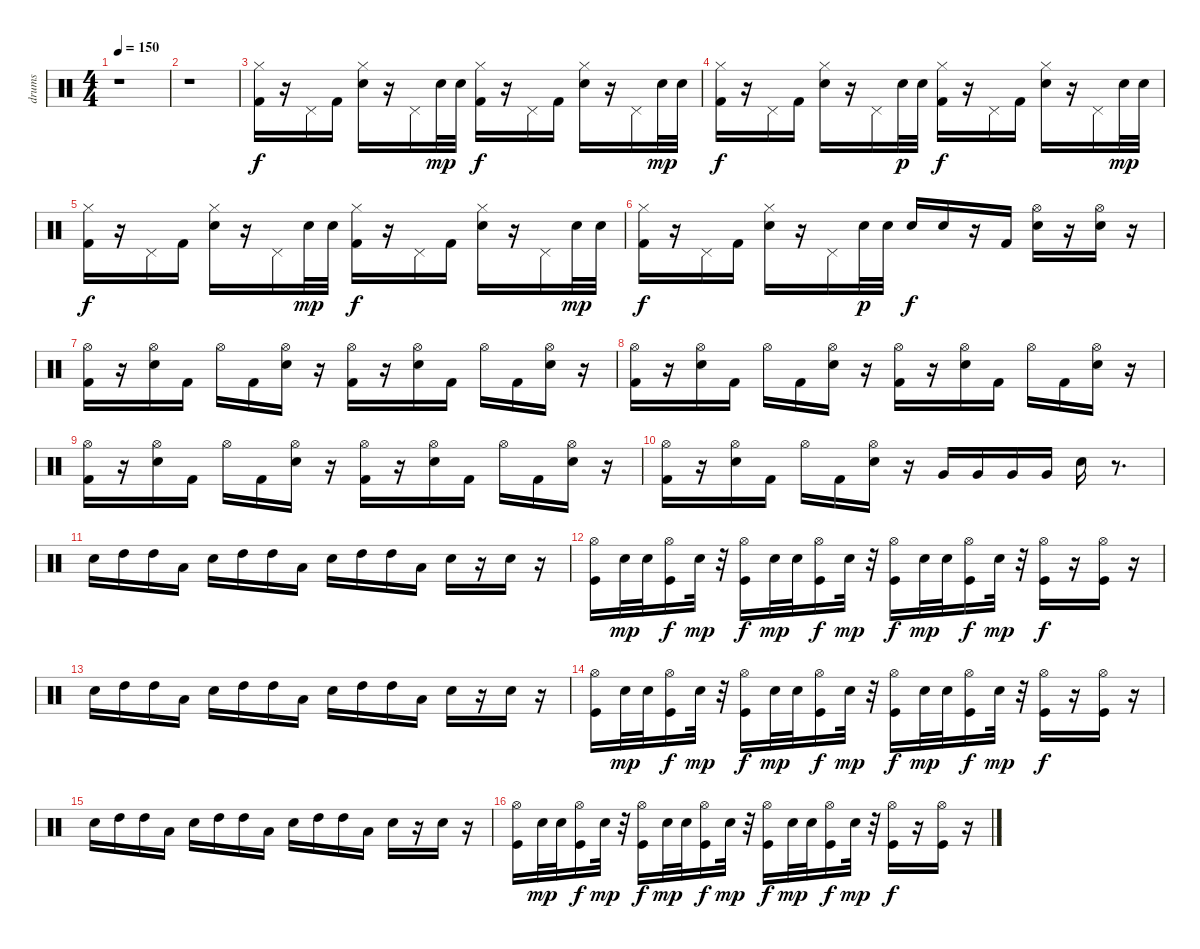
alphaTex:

\track ("drums" "drums") {instrument percussion}
\staff {score}
\articulation defaults
\ts (4 4)
\tempo 150
\clef neutral
\ks c
r.1{dy f} |
r.1 |
("Kick (hit) 2" "Hi-Hat (closed)").16 r.16 "Pedal Hi-Hat (hit)".16 "Kick (hit) 2".16 ("Electric Snare (hit)" "Hi-Hat (closed)").16 r.16 "Pedal Hi-Hat (hit)".16 "Electric Snare (hit)".32{dy mp} "Electric Snare (hit)".32 ("Kick (hit) 2" "Hi-Hat (closed)").16{dy f} r.16 "Pedal Hi-Hat (hit)".16 "Kick (hit) 2".16 ("Electric Snare (hit)" "Hi-Hat (closed)").16 r.16 "Pedal Hi-Hat (hit)".16 "Electric Snare (hit)".32{dy mp} "Electric Snare (hit)".32 |
("Kick (hit) 2" "Hi-Hat (closed)").16{dy f} r.16 "Pedal Hi-Hat (hit)".16 "Kick (hit) 2".16 ("Electric Snare (hit)" "Hi-Hat (closed)").16 r.16 "Pedal Hi-Hat (hit)".16 "Electric Snare (hit)".32{dy p} "Electric Snare (hit)".32 ("Kick (hit) 2" "Hi-Hat (closed)").16{dy f} r.16 "Pedal Hi-Hat (hit)".16 "Kick (hit) 2".16 ("Electric Snare (hit)" "Hi-Hat (closed)").16 r.16 "Pedal Hi-Hat (hit)".16 "Electric Snare (hit)".32{dy mp} "Electric Snare (hit)".32 |
("Kick (hit) 2" "Hi-Hat (closed)").16{dy f} r.16 "Pedal Hi-Hat (hit)".16 "Kick (hit) 2".16 ("Electric Snare (hit)" "Hi-Hat (closed)").16 r.16 "Pedal Hi-Hat (hit)".16 "Electric Snare (hit)".32{dy mp} "Electric Snare (hit)".32 ("Kick (hit) 2" "Hi-Hat (closed)").16{dy f} r.16 "Pedal Hi-Hat (hit)".16 "Kick (hit) 2".16 ("Electric Snare (hit)" "Hi-Hat (closed)").16 r.16 "Pedal Hi-Hat (hit)".16 "Electric Snare (hit)".32{dy mp} "Electric Snare (hit)".32 |
("Kick (hit) 2" "Hi-Hat (closed)").16{dy f} r.16 "Pedal Hi-Hat (hit)".16 "Kick (hit) 2".16 ("Electric Snare (hit)" "Hi-Hat (closed)").16 r.16 "Pedal Hi-Hat (hit)".16 "Electric Snare (hit)".32{dy p} "Electric Snare (hit)".32 "Electric Snare (hit)".16{dy f} "Electric Snare (hit)".16 r.16 "Kick (hit) 2".16 ("Electric Snare (hit)" "Hi-Hat (open)").16 r.16 ("Electric Snare (hit)" "Hi-Hat (open)").16 r.16 |
("Kick (hit) 2" "Hi-Hat (open)").16 r.16 ("Electric Snare (hit)" "Hi-Hat (open)").16 "Kick (hit) 2".16 "Hi-Hat (open)".16 "Kick (hit) 2".16 ("Electric Snare (hit)" "Hi-Hat (open)").16 r.16 ("Kick (hit) 2" "Hi-Hat (open)").16 r.16 ("Electric Snare (hit)" "Hi-Hat (open)").16 "Kick (hit) 2".16 "Hi-Hat (open)".16 "Kick (hit) 2".16 ("Electric Snare (hit)" "Hi-Hat (open)").16 r.16 |
("Kick (hit) 2" "Hi-Hat (open)").16 r.16 ("Electric Snare (hit)" "Hi-Hat (open)").16 "Kick (hit) 2".16 "Hi-Hat (open)".16 "Kick (hit) 2".16 ("Electric Snare (hit)" "Hi-Hat (open)").16 r.16 ("Kick (hit) 2" "Hi-Hat (open)").16 r.16 ("Electric Snare (hit)" "Hi-Hat (open)").16 "Kick (hit) 2".16 "Hi-Hat (open)".16 "Kick (hit) 2".16 ("Electric Snare (hit)" "Hi-Hat (open)").16 r.16 |
("Kick (hit) 2" "Hi-Hat (open)").16 r.16 ("Electric Snare (hit)" "Hi-Hat (open)").16 "Kick (hit) 2".16 "Hi-Hat (open)".16 "Kick (hit) 2".16 ("Electric Snare (hit)" "Hi-Hat (open)").16 r.16 ("Kick (hit) 2" "Hi-Hat (open)").16 r.16 ("Electric Snare (hit)" "Hi-Hat (open)").16 "Kick (hit) 2".16 "Hi-Hat (open)".16 "Kick (hit) 2".16 ("Electric Snare (hit)" "Hi-Hat (open)").16 r.16 |
("Kick (hit) 2" "Hi-Hat (open)").16 r.16 ("Electric Snare (hit)" "Hi-Hat (open)").16 "Kick (hit) 2".16 "Hi-Hat (open)".16 "Kick (hit) 2".16 ("Electric Snare (hit)" "Hi-Hat (open)").16 r.16 "Very Low Tom (hit)".16 "Very Low Tom (hit)".16 "Very Low Tom (hit)".16 "Very Low Tom (hit)".16 "Electric Snare (hit)".16 r.8{d} |
"Snare (hit) 2".16 "High Tom (hit)".16 "High Tom (hit)".16 "Low Tom (hit)".16 "Snare (hit) 2".16 "High Tom (hit)".16 "High Tom (hit)".16 "Low Tom (hit)".16 "Snare (hit) 2".16 "High Tom (hit)".16 "High Tom (hit)".16 "Low Tom (hit)".16 "Snare (hit) 2".16 r.16 "Snare (hit) 2".16 r.16 |
("Kick (hit)" "Hi-Hat (open)").16 "Snare (hit) 2".32{dy mp} "Snare (hit) 2".32 ("Kick (hit)" "Hi-Hat (open)").16{dy f} "Snare (hit) 2".32{dy mp} r.32 ("Kick (hit)" "Hi-Hat (open)").16{dy f} "Snare (hit) 2".32{dy mp} "Snare (hit) 2".32 ("Kick (hit)" "Hi-Hat (open)").16{dy f} "Snare (hit) 2".32{dy mp} r.32 ("Kick (hit)" "Hi-Hat (open)").16{dy f} "Snare (hit) 2".32{dy mp} "Snare (hit) 2".32 ("Kick (hit)" "Hi-Hat (open)").16{dy f} "Snare (hit) 2".32{dy mp} r.32 ("Kick (hit)" "Hi-Hat (open)").16{dy f} r.16 ("Kick (hit)" "Hi-Hat (open)").16 r.16 |
"Snare (hit) 2".16 "High Tom (hit)".16 "High Tom (hit)".16 "Low Tom (hit)".16 "Snare (hit) 2".16 "High Tom (hit)".16 "High Tom (hit)".16 "Low Tom (hit)".16 "Snare (hit) 2".16 "High Tom (hit)".16 "High Tom (hit)".16 "Low Tom (hit)".16 "Snare (hit) 2".16 r.16 "Snare (hit) 2".16 r.16 |
("Kick (hit)" "Hi-Hat (open)").16 "Snare (hit) 2".32{dy mp} "Snare (hit) 2".32 ("Kick (hit)" "Hi-Hat (open)").16{dy f} "Snare (hit) 2".32{dy mp} r.32 ("Kick (hit)" "Hi-Hat (open)").16{dy f} "Snare (hit) 2".32{dy mp} "Snare (hit) 2".32 ("Kick (hit)" "Hi-Hat (open)").16{dy f} "Snare (hit) 2".32{dy mp} r.32 ("Kick (hit)" "Hi-Hat (open)").16{dy f} "Snare (hit) 2".32{dy mp} "Snare (hit) 2".32 ("Kick (hit)" "Hi-Hat (open)").16{dy f} "Snare (hit) 2".32{dy mp} r.32 ("Kick (hit)" "Hi-Hat (open)").16{dy f} r.16 ("Kick (hit)" "Hi-Hat (open)").16 r.16 |
"Snare (hit) 2".16 "High Tom (hit)".16 "High Tom (hit)".16 "Low Tom (hit)".16 "Snare (hit) 2".16 "High Tom (hit)".16 "High Tom (hit)".16 "Low Tom (hit)".16 "Snare (hit) 2".16 "High Tom (hit)".16 "High Tom (hit)".16 "Low Tom (hit)".16 "Snare (hit) 2".16 r.16 "Snare (hit) 2".16 r.16 |
("Kick (hit)" "Hi-Hat (open)").16 "Snare (hit) 2".32{dy mp} "Snare (hit) 2".32 ("Kick (hit)" "Hi-Hat (open)").16{dy f} "Snare (hit) 2".32{dy mp} r.32 ("Kick (hit)" "Hi-Hat (open)").16{dy f} "Snare (hit) 2".32{dy mp} "Snare (hit) 2".32 ("Kick (hit)" "Hi-Hat (open)").16{dy f} "Snare (hit) 2".32{dy mp} r.32 ("Kick (hit)" "Hi-Hat (open)").16{dy f} "Snare (hit) 2".32{dy mp} "Snare (hit) 2".32 ("Kick (hit)" "Hi-Hat (open)").16{dy f} "Snare (hit) 2".32{dy mp} r.32 ("Kick (hit)" "Hi-Hat (open)").16{dy f} r.16 ("Kick (hit)" "Hi-Hat (open)").16 r.16
